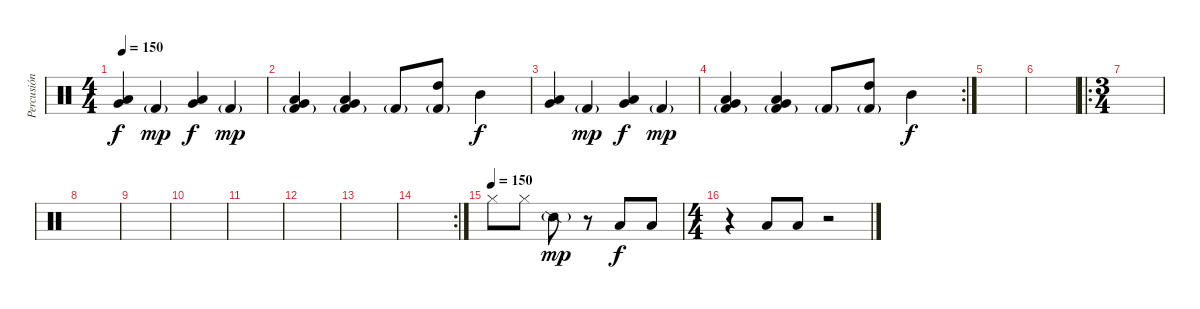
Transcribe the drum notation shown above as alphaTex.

\track ("Percusión" "Percusión") {instrument percussion}
\staff {score}
\articulation defaults
\ts (4 4)
\tempo 150
\clef neutral
\ks c
("Very Low Tom (hit)" "Low Floor Tom (hit)").4{dy f} "Kick (hit) 2"{g}.4{dy mp} ("Very Low Tom (hit)" "Low Tom (hit)").4{dy f} "Kick (hit) 2"{g}.4{dy mp} |
("Kick (hit) 2"{g} "Very Low Tom (hit)" "Low Floor Tom (hit)").4 ("Kick (hit) 2"{g} "Very Low Tom (hit)" "Low Tom (hit)").4 "Kick (hit) 2"{g}.8 ("Kick (hit) 2"{g} "High Tom (hit)").8 "Mid Tom (hit)".4{dy f} |
("Very Low Tom (hit)" "Low Floor Tom (hit)").4 "Kick (hit) 2"{g}.4{dy mp} ("Very Low Tom (hit)" "Low Tom (hit)").4{dy f} "Kick (hit) 2"{g}.4{dy mp} |
\rc 2
("Kick (hit) 2"{g} "Very Low Tom (hit)" "Low Floor Tom (hit)").4 ("Kick (hit) 2"{g} "Very Low Tom (hit)" "Low Tom (hit)").4 "Kick (hit) 2"{g}.8 ("Kick (hit) 2"{g} "High Tom (hit)").8 "Mid Tom (hit)".4{dy f} |
|
|
\ro
\ts (3 4)
|
|
|
|
|
|
|
\rc 2
|
\tempo (150)
"Hi-Hat (closed)".8 "Hi-Hat (closed)".8 "Snare (side stick) 2"{g}.8{dy mp} r.8 "Low Floor Tom (hit)".8{dy f} "Low Floor Tom (hit)".8 |
\ts (4 4)
r.4 "Low Floor Tom (hit)".8 "Low Floor Tom (hit)".8 r.2
